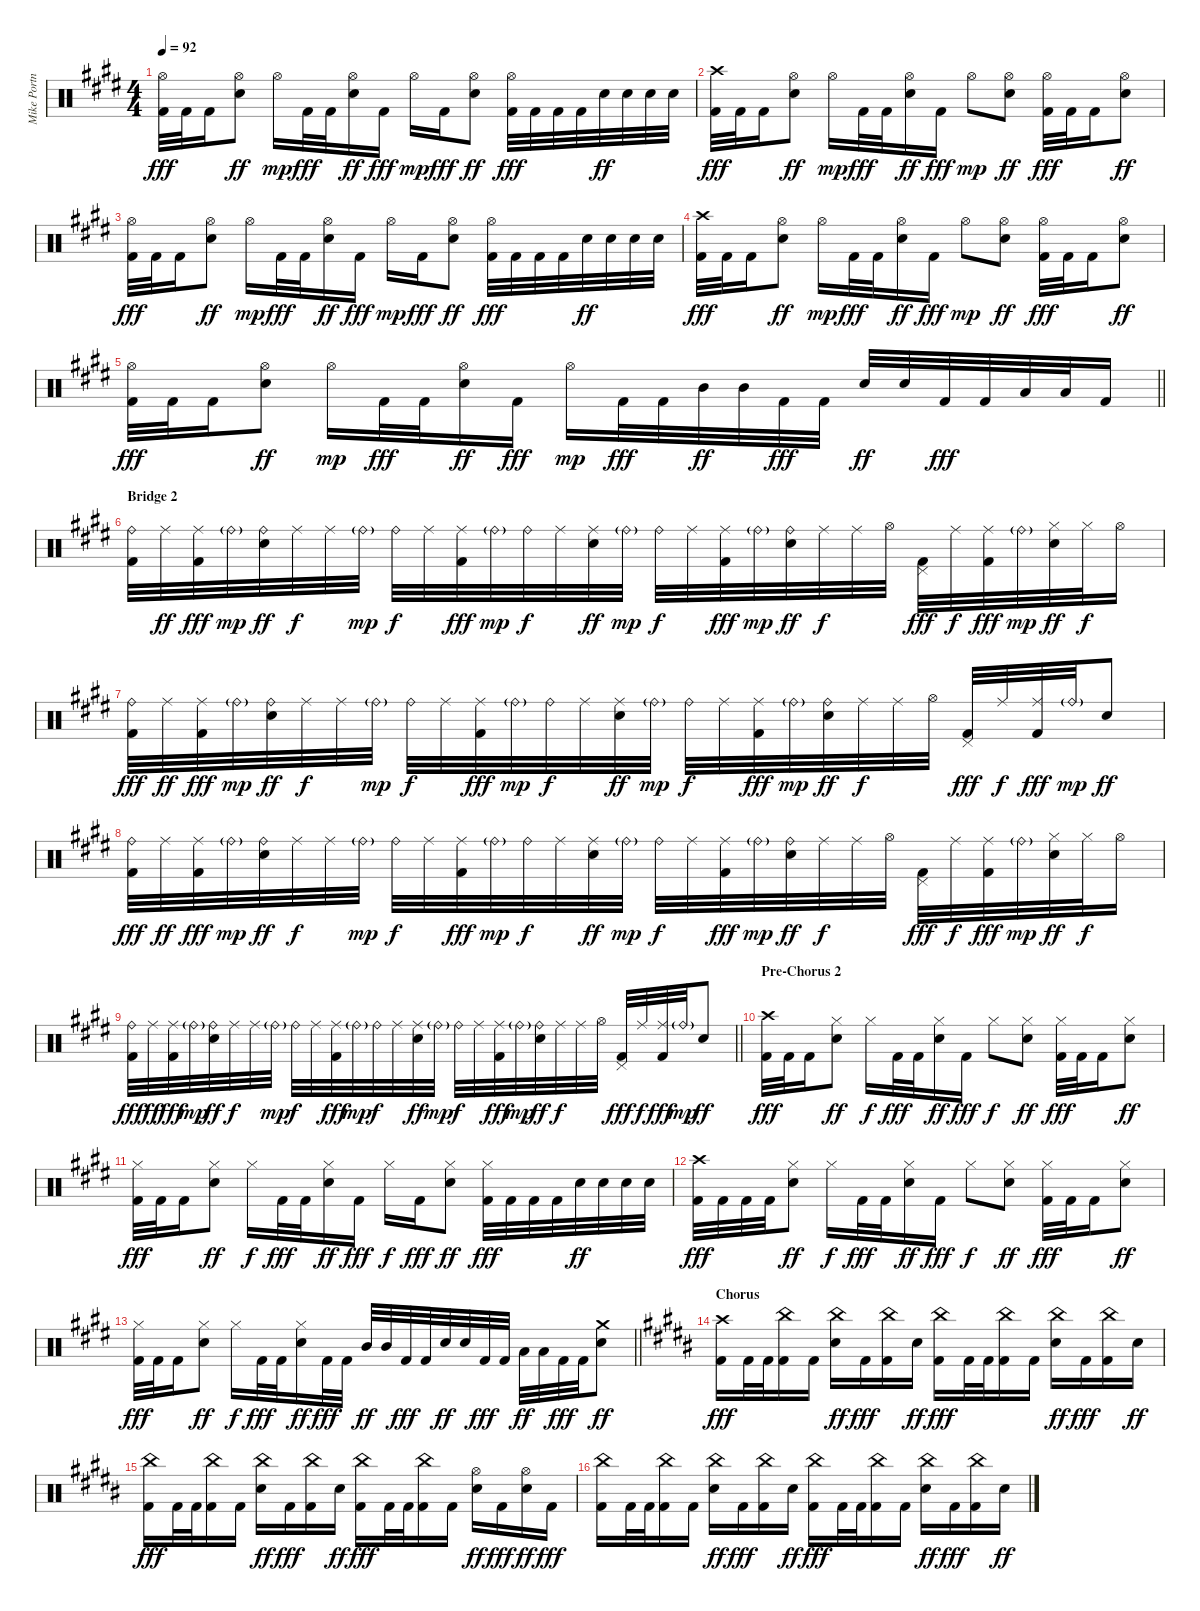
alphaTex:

\track ("Mike Portnoy" "Mike Portn") {instrument percussion}
\staff {score}
\articulation defaults
\ts (4 4)
\tempo 92
\clef neutral
\ks e
("Hi-Hat (open)" "Kick (hit) 2").32{dy fff} "Kick (hit) 2".32 "Kick (hit) 2".16 ("Hi-Hat (open)" "Electric Snare (hit)").8{dy ff} "Hi-Hat (open)".16{dy mp} "Kick (hit) 2".32{dy fff} "Kick (hit) 2".32 ("Hi-Hat (open)" "Electric Snare (hit)").16{dy ff} "Kick (hit) 2".16{dy fff} "Hi-Hat (open)".16{dy mp} "Kick (hit) 2".16{dy fff} ("Hi-Hat (open)" "Electric Snare (hit)").8{dy ff} ("Hi-Hat (open)" "Kick (hit) 2").32{dy fff} "Kick (hit) 2".32 "Kick (hit) 2".32 "Kick (hit) 2".32 "Electric Snare (hit)".32{dy ff} "Electric Snare (hit)".32 "Electric Snare (hit)".32 "Electric Snare (hit)".32 |
("Crash high (hit)" "Kick (hit) 2").32{dy fff} "Kick (hit) 2".32 "Kick (hit) 2".16 ("Hi-Hat (open)" "Electric Snare (hit)").8{dy ff} "Hi-Hat (open)".16{dy mp} "Kick (hit) 2".32{dy fff} "Kick (hit) 2".32 ("Hi-Hat (open)" "Electric Snare (hit)").16{dy ff} "Kick (hit) 2".16{dy fff} "Hi-Hat (open)".8{dy mp} ("Hi-Hat (open)" "Electric Snare (hit)").8{dy ff} ("Hi-Hat (open)" "Kick (hit) 2").32{dy fff} "Kick (hit) 2".32 "Kick (hit) 2".16 ("Hi-Hat (open)" "Electric Snare (hit)").8{dy ff} |
("Hi-Hat (open)" "Kick (hit) 2").32{dy fff} "Kick (hit) 2".32 "Kick (hit) 2".16 ("Hi-Hat (open)" "Electric Snare (hit)").8{dy ff} "Hi-Hat (open)".16{dy mp} "Kick (hit) 2".32{dy fff} "Kick (hit) 2".32 ("Hi-Hat (open)" "Electric Snare (hit)").16{dy ff} "Kick (hit) 2".16{dy fff} "Hi-Hat (open)".16{dy mp} "Kick (hit) 2".16{dy fff} ("Hi-Hat (open)" "Electric Snare (hit)").8{dy ff} ("Hi-Hat (open)" "Kick (hit) 2").32{dy fff} "Kick (hit) 2".32 "Kick (hit) 2".32 "Kick (hit) 2".32 "Electric Snare (hit)".32{dy ff} "Electric Snare (hit)".32 "Electric Snare (hit)".32 "Electric Snare (hit)".32 |
("Crash high (hit)" "Kick (hit) 2").32{dy fff} "Kick (hit) 2".32 "Kick (hit) 2".16 ("Hi-Hat (open)" "Electric Snare (hit)").8{dy ff} "Hi-Hat (open)".16{dy mp} "Kick (hit) 2".32{dy fff} "Kick (hit) 2".32 ("Hi-Hat (open)" "Electric Snare (hit)").16{dy ff} "Kick (hit) 2".16{dy fff} "Hi-Hat (open)".8{dy mp} ("Hi-Hat (open)" "Electric Snare (hit)").8{dy ff} ("Hi-Hat (open)" "Kick (hit) 2").32{dy fff} "Kick (hit) 2".32 "Kick (hit) 2".16 ("Hi-Hat (open)" "Electric Snare (hit)").8{dy ff} |
\barLineRight lightlight
("Hi-Hat (open)" "Kick (hit) 2").32{dy fff} "Kick (hit) 2".32 "Kick (hit) 2".16 ("Hi-Hat (open)" "Electric Snare (hit)").8{dy ff} "Hi-Hat (open)".16{dy mp} "Kick (hit) 2".32{dy fff} "Kick (hit) 2".32 ("Hi-Hat (open)" "Electric Snare (hit)").16{dy ff} "Kick (hit) 2".16{dy fff} "Hi-Hat (open)".16{dy mp} "Kick (hit) 2".32{dy fff} "Kick (hit) 2".32 "Mid Tom (hit)".32{dy ff} "Mid Tom (hit)".32 "Kick (hit) 2".32{dy fff} "Kick (hit) 2".32 "Electric Snare (hit)".32{dy ff} "Electric Snare (hit)".32 "Kick (hit) 2".32{dy fff} "Kick (hit) 2".32 "Low Tom (hit)".32 "Low Tom (hit)".32 "Kick (hit) 2".16 |
\section ("" "Bridge 2")
("Ride (bell)" "Kick (hit) 2").32 "Ride (middle)".32{dy ff} ("Ride (middle)" "Kick (hit) 2").32{dy fff} "Ride (bell)"{g}.32{dy mp} ("Ride (bell)" "Electric Snare (hit)").32{dy ff} "Ride (middle)".32{dy f} "Ride (middle)".32 "Ride (bell)"{g}.32{dy mp} "Ride (bell)".32{dy f} "Ride (middle)".32 ("Ride (middle)" "Kick (hit) 2").32{dy fff} "Ride (bell)"{g}.32{dy mp} "Ride (bell)".32{dy f} "Ride (middle)".32 ("Ride (middle)" "Electric Snare (hit)").32{dy ff} "Ride (bell)"{g}.32{dy mp} "Ride (bell)".32{dy f} "Ride (middle)".32 ("Ride (middle)" "Kick (hit) 2").32{dy fff} "Ride (bell)"{g}.32{dy mp} ("Ride (bell)" "Electric Snare (hit)").32{dy ff} "Ride (middle)".32{dy f} "Ride (middle)".32 "Hi-Hat (open)".32 ("Pedal Hi-Hat (hit)" "Kick (hit) 2").32{dy fff} "Ride (middle)".32{dy f} ("Ride (middle)" "Kick (hit) 2").32{dy fff} "Ride (bell)"{g}.32{dy mp} ("Hi-Hat (closed)" "Electric Snare (hit)").32{dy ff} "Hi-Hat (closed)".32{dy f} "Hi-Hat (open)".16 |
("Ride (bell)" "Kick (hit) 2").32{dy fff} "Ride (middle)".32{dy ff} ("Ride (middle)" "Kick (hit) 2").32{dy fff} "Ride (bell)"{g}.32{dy mp} ("Ride (bell)" "Electric Snare (hit)").32{dy ff} "Ride (middle)".32{dy f} "Ride (middle)".32 "Ride (bell)"{g}.32{dy mp} "Ride (bell)".32{dy f} "Ride (middle)".32 ("Ride (middle)" "Kick (hit) 2").32{dy fff} "Ride (bell)"{g}.32{dy mp} "Ride (bell)".32{dy f} "Ride (middle)".32 ("Ride (middle)" "Electric Snare (hit)").32{dy ff} "Ride (bell)"{g}.32{dy mp} "Ride (bell)".32{dy f} "Ride (middle)".32 ("Ride (middle)" "Kick (hit) 2").32{dy fff} "Ride (bell)"{g}.32{dy mp} ("Ride (bell)" "Electric Snare (hit)").32{dy ff} "Ride (middle)".32{dy f} "Ride (middle)".32 "Hi-Hat (open)".32 ("Pedal Hi-Hat (hit)" "Kick (hit) 2").32{dy fff} "Ride (middle)".32{dy f} ("Ride (middle)" "Kick (hit) 2").32{dy fff} "Ride (bell)"{g}.32{dy mp} "Electric Snare (hit)".8{dy ff} |
("Ride (bell)" "Kick (hit) 2").32{dy fff} "Ride (middle)".32{dy ff} ("Ride (middle)" "Kick (hit) 2").32{dy fff} "Ride (bell)"{g}.32{dy mp} ("Ride (bell)" "Electric Snare (hit)").32{dy ff} "Ride (middle)".32{dy f} "Ride (middle)".32 "Ride (bell)"{g}.32{dy mp} "Ride (bell)".32{dy f} "Ride (middle)".32 ("Ride (middle)" "Kick (hit) 2").32{dy fff} "Ride (bell)"{g}.32{dy mp} "Ride (bell)".32{dy f} "Ride (middle)".32 ("Ride (middle)" "Electric Snare (hit)").32{dy ff} "Ride (bell)"{g}.32{dy mp} "Ride (bell)".32{dy f} "Ride (middle)".32 ("Ride (middle)" "Kick (hit) 2").32{dy fff} "Ride (bell)"{g}.32{dy mp} ("Ride (bell)" "Electric Snare (hit)").32{dy ff} "Ride (middle)".32{dy f} "Ride (middle)".32 "Hi-Hat (open)".32 ("Pedal Hi-Hat (hit)" "Kick (hit) 2").32{dy fff} "Ride (middle)".32{dy f} ("Ride (middle)" "Kick (hit) 2").32{dy fff} "Ride (bell)"{g}.32{dy mp} ("Hi-Hat (closed)" "Electric Snare (hit)").32{dy ff} "Hi-Hat (closed)".32{dy f} "Hi-Hat (open)".16 |
\barLineRight lightlight
("Ride (bell)" "Kick (hit) 2").32{dy fff} "Ride (middle)".32{dy ff} ("Ride (middle)" "Kick (hit) 2").32{dy fff} "Ride (bell)"{g}.32{dy mp} ("Ride (bell)" "Electric Snare (hit)").32{dy ff} "Ride (middle)".32{dy f} "Ride (middle)".32 "Ride (bell)"{g}.32{dy mp} "Ride (bell)".32{dy f} "Ride (middle)".32 ("Ride (middle)" "Kick (hit) 2").32{dy fff} "Ride (bell)"{g}.32{dy mp} "Ride (bell)".32{dy f} "Ride (middle)".32 ("Ride (middle)" "Electric Snare (hit)").32{dy ff} "Ride (bell)"{g}.32{dy mp} "Ride (bell)".32{dy f} "Ride (middle)".32 ("Ride (middle)" "Kick (hit) 2").32{dy fff} "Ride (bell)"{g}.32{dy mp} ("Ride (bell)" "Electric Snare (hit)").32{dy ff} "Ride (middle)".32{dy f} "Ride (middle)".32 "Hi-Hat (open)".32 ("Pedal Hi-Hat (hit)" "Kick (hit) 2").32{dy fff} "Ride (middle)".32{dy f} ("Ride (middle)" "Kick (hit) 2").32{dy fff} "Ride (bell)"{g}.32{dy mp} "Electric Snare (hit)".8{dy ff} |
\section ("" "Pre-Chorus 2")
("Crash high (hit)" "Kick (hit) 2").32{dy fff} "Kick (hit) 2".32 "Kick (hit) 2".16 ("Hi-Hat (closed)" "Electric Snare (hit)").8{dy ff} "Hi-Hat (closed)".16{dy f} "Kick (hit) 2".32{dy fff} "Kick (hit) 2".32 ("Hi-Hat (closed)" "Electric Snare (hit)").16{dy ff} "Kick (hit) 2".16{dy fff} "Hi-Hat (closed)".8{dy f} ("Hi-Hat (closed)" "Electric Snare (hit)").8{dy ff} ("Hi-Hat (closed)" "Kick (hit) 2").32{dy fff} "Kick (hit) 2".32 "Kick (hit) 2".16 ("Hi-Hat (closed)" "Electric Snare (hit)").8{dy ff} |
("Hi-Hat (closed)" "Kick (hit) 2").32{dy fff} "Kick (hit) 2".32 "Kick (hit) 2".16 ("Hi-Hat (closed)" "Electric Snare (hit)").8{dy ff} "Hi-Hat (closed)".16{dy f} "Kick (hit) 2".32{dy fff} "Kick (hit) 2".32 ("Hi-Hat (closed)" "Electric Snare (hit)").16{dy ff} "Kick (hit) 2".16{dy fff} "Hi-Hat (closed)".16{dy f} "Kick (hit) 2".16{dy fff} ("Hi-Hat (closed)" "Electric Snare (hit)").8{dy ff} ("Hi-Hat (closed)" "Kick (hit) 2").32{dy fff} "Kick (hit) 2".32 "Kick (hit) 2".32 "Kick (hit) 2".32 "Electric Snare (hit)".32{dy ff} "Electric Snare (hit)".32 "Electric Snare (hit)".32 "Electric Snare (hit)".32 |
("Crash high (hit)" "Kick (hit) 2").32{dy fff} "Kick (hit) 2".32 "Kick (hit) 2".32 "Kick (hit) 2".32 ("Hi-Hat (closed)" "Electric Snare (hit)").8{dy ff} "Hi-Hat (closed)".16{dy f} "Kick (hit) 2".32{dy fff} "Kick (hit) 2".32 ("Hi-Hat (closed)" "Electric Snare (hit)").16{dy ff} "Kick (hit) 2".16{dy fff} "Hi-Hat (closed)".8{dy f} ("Hi-Hat (closed)" "Electric Snare (hit)").8{dy ff} ("Hi-Hat (closed)" "Kick (hit) 2").32{dy fff} "Kick (hit) 2".32 "Kick (hit) 2".16 ("Hi-Hat (closed)" "Electric Snare (hit)").8{dy ff} |
\barLineRight lightlight
("Hi-Hat (closed)" "Kick (hit) 2").32{dy fff} "Kick (hit) 2".32 "Kick (hit) 2".16 ("Hi-Hat (closed)" "Electric Snare (hit)").8{dy ff} "Hi-Hat (closed)".16{dy f} "Kick (hit) 2".32{dy fff} "Kick (hit) 2".32 ("Hi-Hat (closed)" "Electric Snare (hit)").16{dy ff} "Kick (hit) 2".32{dy fff} "Kick (hit) 2".32 "Mid Tom (hit)".32{dy ff} "Mid Tom (hit)".32 "Kick (hit) 2".32{dy fff} "Kick (hit) 2".32 "Electric Snare (hit)".32{dy ff} "Electric Snare (hit)".32 "Kick (hit) 2".32{dy fff} "Kick (hit) 2".32 "Low Tom (hit)".32{dy ff} "Low Tom (hit)".32 "Kick (hit) 2".32{dy fff} "Kick (hit) 2".32 ("Crash medium (hit)" "Electric Snare (hit)").8{dy ff} |
\section ("" "Chorus")
\ks b
("Crash high (hit)" "Kick (hit) 2").16{dy fff} "Kick (hit) 2".32 "Kick (hit) 2".32 ("China (hit)" "Kick (hit) 2").16 "Kick (hit) 2".16 ("China (hit)" "Electric Snare (hit)").16{dy ff} "Kick (hit) 2".16{dy fff} ("China (hit)" "Kick (hit) 2").16 "Electric Snare (hit)".16{dy ff} ("China (hit)" "Kick (hit) 2").16{dy fff} "Kick (hit) 2".32 "Kick (hit) 2".32 ("China (hit)" "Kick (hit) 2").16 "Kick (hit) 2".16 ("China (hit)" "Electric Snare (hit)").16{dy ff} "Kick (hit) 2".16{dy fff} ("China (hit)" "Kick (hit) 2").16 "Electric Snare (hit)".16{dy ff} |
("China (hit)" "Kick (hit) 2").16{dy fff} "Kick (hit) 2".32 "Kick (hit) 2".32 ("China (hit)" "Kick (hit) 2").16 "Kick (hit) 2".16 ("China (hit)" "Electric Snare (hit)").16{dy ff} "Kick (hit) 2".16{dy fff} ("China (hit)" "Kick (hit) 2").16 "Electric Snare (hit)".16{dy ff} ("China (hit)" "Kick (hit) 2").16{dy fff} "Kick (hit) 2".32 "Kick (hit) 2".32 ("China (hit)" "Kick (hit) 2").16 "Kick (hit) 2".16 ("Hi-Hat (open)" "Electric Snare (hit)").16{dy ff} "Kick (hit) 2".16{dy fff} ("Hi-Hat (open)" "Electric Snare (hit)").16{dy ff} "Kick (hit) 2".16{dy fff} |
("China (hit)" "Kick (hit) 2").16 "Kick (hit) 2".32 "Kick (hit) 2".32 ("China (hit)" "Kick (hit) 2").16 "Kick (hit) 2".16 ("China (hit)" "Electric Snare (hit)").16{dy ff} "Kick (hit) 2".16{dy fff} ("China (hit)" "Kick (hit) 2").16 "Electric Snare (hit)".16{dy ff} ("China (hit)" "Kick (hit) 2").16{dy fff} "Kick (hit) 2".32 "Kick (hit) 2".32 ("China (hit)" "Kick (hit) 2").16 "Kick (hit) 2".16 ("China (hit)" "Electric Snare (hit)").16{dy ff} "Kick (hit) 2".16{dy fff} ("China (hit)" "Kick (hit) 2").16 "Electric Snare (hit)".16{dy ff}
